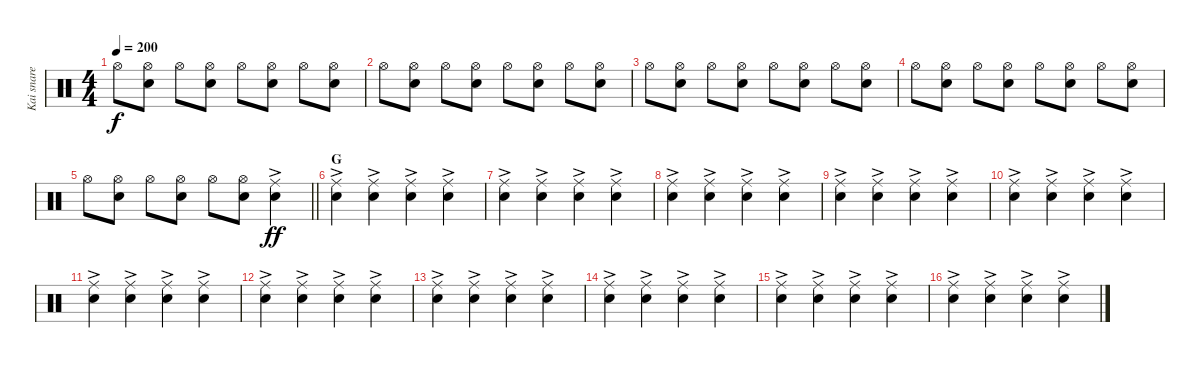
\track ("Kai snare" "Kai snare") {instrument percussion}
\staff {score}
\articulation defaults
\ts (4 4)
\tempo 200
\clef neutral
\ks c "Hi-Hat (open)".8{dy f}
("Hi-Hat (open)" "Snare (hit) 2").8 "Hi-Hat (open)".8 ("Hi-Hat (open)" "Snare (hit) 2").8 "Hi-Hat (open)".8 ("Hi-Hat (open)" "Snare (hit) 2").8 "Hi-Hat (open)".8 ("Hi-Hat (open)" "Snare (hit) 2").8 |
"Hi-Hat (open)".8 ("Hi-Hat (open)" "Snare (hit) 2").8 "Hi-Hat (open)".8 ("Hi-Hat (open)" "Snare (hit) 2").8 "Hi-Hat (open)".8 ("Hi-Hat (open)" "Snare (hit) 2").8 "Hi-Hat (open)".8 ("Hi-Hat (open)" "Snare (hit) 2").8 |
"Hi-Hat (open)".8 ("Hi-Hat (open)" "Snare (hit) 2").8 "Hi-Hat (open)".8 ("Hi-Hat (open)" "Snare (hit) 2").8 "Hi-Hat (open)".8 ("Hi-Hat (open)" "Snare (hit) 2").8 "Hi-Hat (open)".8 ("Hi-Hat (open)" "Snare (hit) 2").8 |
"Hi-Hat (open)".8 ("Hi-Hat (open)" "Snare (hit) 2").8 "Hi-Hat (open)".8 ("Hi-Hat (open)" "Snare (hit) 2").8 "Hi-Hat (open)".8 ("Hi-Hat (open)" "Snare (hit) 2").8 "Hi-Hat (open)".8 ("Hi-Hat (open)" "Snare (hit) 2").8 |
\barLineRight lightlight "Hi-Hat (open)".8
("Hi-Hat (open)" "Snare (hit) 2").8 "Hi-Hat (open)".8 ("Hi-Hat (open)" "Snare (hit) 2").8 "Hi-Hat (open)".8 ("Hi-Hat (open)" "Snare (hit) 2").8 ("Ride (middle)"{ac} "Snare (hit) 2").4{dy ff} |
\section ("" "G")
("Ride (middle)"{ac} "Snare (hit) 2").4 ("Ride (middle)"{ac} "Snare (hit) 2").4 ("Ride (middle)"{ac} "Snare (hit) 2").4 ("Ride (middle)"{ac} "Snare (hit) 2").4 |
("Ride (middle)"{ac} "Snare (hit) 2").4 ("Ride (middle)"{ac} "Snare (hit) 2").4 ("Ride (middle)"{ac} "Snare (hit) 2").4 ("Ride (middle)"{ac} "Snare (hit) 2").4 |
("Ride (middle)"{ac} "Snare (hit) 2").4 ("Ride (middle)"{ac} "Snare (hit) 2").4 ("Ride (middle)"{ac} "Snare (hit) 2").4 ("Ride (middle)"{ac} "Snare (hit) 2").4 |
("Ride (middle)"{ac} "Snare (hit) 2").4 ("Ride (middle)"{ac} "Snare (hit) 2").4 ("Ride (middle)"{ac} "Snare (hit) 2").4 ("Ride (middle)"{ac} "Snare (hit) 2").4 |
("Ride (middle)"{ac} "Snare (hit) 2").4 ("Ride (middle)"{ac} "Snare (hit) 2").4 ("Ride (middle)"{ac} "Snare (hit) 2").4 ("Ride (middle)"{ac} "Snare (hit) 2").4 |
("Ride (middle)"{ac} "Snare (hit) 2").4 ("Ride (middle)"{ac} "Snare (hit) 2").4 ("Ride (middle)"{ac} "Snare (hit) 2").4 ("Ride (middle)"{ac} "Snare (hit) 2").4 |
("Ride (middle)"{ac} "Snare (hit) 2").4 ("Ride (middle)"{ac} "Snare (hit) 2").4 ("Ride (middle)"{ac} "Snare (hit) 2").4 ("Ride (middle)"{ac} "Snare (hit) 2").4 |
("Ride (middle)"{ac} "Snare (hit) 2").4 ("Ride (middle)"{ac} "Snare (hit) 2").4 ("Ride (middle)"{ac} "Snare (hit) 2").4 ("Ride (middle)"{ac} "Snare (hit) 2").4 |
("Ride (middle)"{ac} "Snare (hit) 2").4 ("Ride (middle)"{ac} "Snare (hit) 2").4 ("Ride (middle)"{ac} "Snare (hit) 2").4 ("Ride (middle)"{ac} "Snare (hit) 2").4 |
("Ride (middle)"{ac} "Snare (hit) 2").4 ("Ride (middle)"{ac} "Snare (hit) 2").4 ("Ride (middle)"{ac} "Snare (hit) 2").4 ("Ride (middle)"{ac} "Snare (hit) 2").4 |
("Ride (middle)"{ac} "Snare (hit) 2").4 ("Ride (middle)"{ac} "Snare (hit) 2").4 ("Ride (middle)"{ac} "Snare (hit) 2").4 ("Ride (middle)"{ac} "Snare (hit) 2").4
